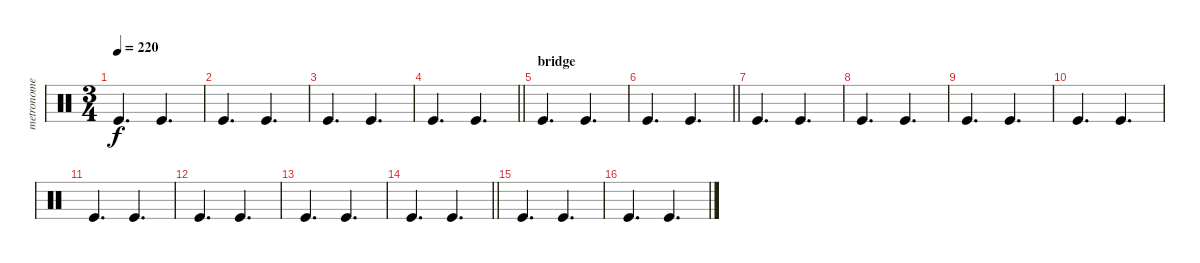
\track ("metronome" "metronome") {instrument percussion}
\staff {score}
\articulation defaults
\ts (3 4)
\tempo 220
\clef neutral
\ks c "Kick (hit)".4{d dy f} "Kick (hit)".4{d}
|
"Kick (hit)".4{d} "Kick (hit)".4{d} |
"Kick (hit)".4{d} "Kick (hit)".4{d} |
\barLineRight lightlight "Kick (hit)".4{d} "Kick (hit)".4{d}
|
\section ("" "bridge")
"Kick (hit)".4{d} "Kick (hit)".4{d} |
\barLineRight lightlight "Kick (hit)".4{d} "Kick (hit)".4{d}
|
"Kick (hit)".4{d} "Kick (hit)".4{d} |
"Kick (hit)".4{d} "Kick (hit)".4{d} |
"Kick (hit)".4{d} "Kick (hit)".4{d} |
"Kick (hit)".4{d} "Kick (hit)".4{d} |
"Kick (hit)".4{d} "Kick (hit)".4{d} |
"Kick (hit)".4{d} "Kick (hit)".4{d} |
"Kick (hit)".4{d} "Kick (hit)".4{d} |
\barLineRight lightlight "Kick (hit)".4{d} "Kick (hit)".4{d}
|
"Kick (hit)".4{d} "Kick (hit)".4{d} |
"Kick (hit)".4{d} "Kick (hit)".4{d}
